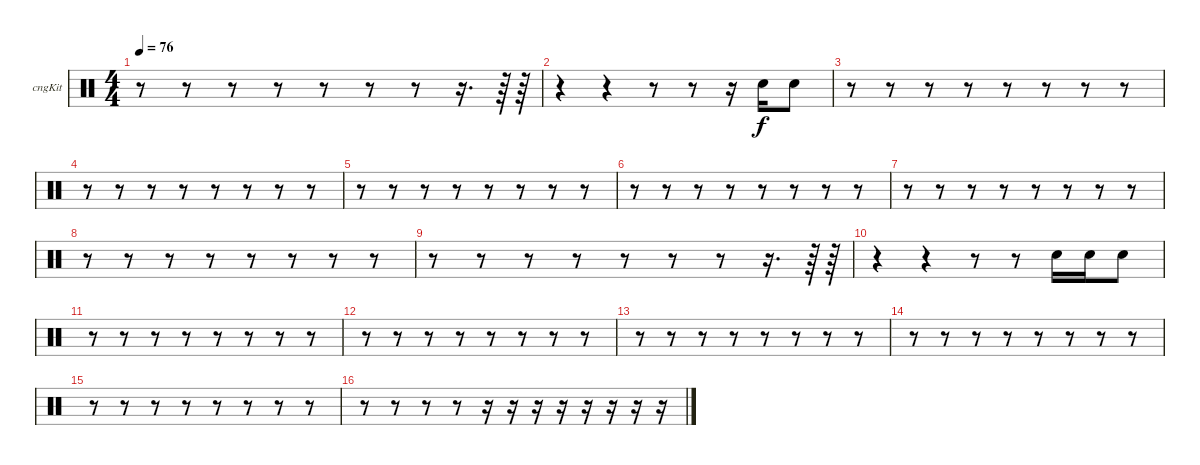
\bracketExtendMode groupsimilarinstruments
\firstSystemTrackNameOrientation horizontal
\otherSystemsTrackNameOrientation horizontal
\track ("Congas" "cngKit") {instrument percussion}
\staff {score}
\articulation defaults
\ts (4 4)
\tempo 76
\clef neutral
\ks c
r.8{dy f} r.8 r.8 r.8 r.8 r.8 r.8 r.16{d} r.64 r.64 |
r.4 r.4 r.8 r.8 r.16 "Snare (hit) 2".16 "Snare (hit) 2".8 |
r.8 r.8 r.8 r.8 r.8 r.8 r.8 r.8 |
r.8 r.8 r.8 r.8 r.8 r.8 r.8 r.8 |
r.8 r.8 r.8 r.8 r.8 r.8 r.8 r.8 |
r.8 r.8 r.8 r.8 r.8 r.8 r.8 r.8 |
r.8 r.8 r.8 r.8 r.8 r.8 r.8 r.8 |
r.8 r.8 r.8 r.8 r.8 r.8 r.8 r.8 |
r.8 r.8 r.8 r.8 r.8 r.8 r.8 r.16{d} r.64 r.64 |
r.4 r.4 r.8 r.8 "Snare (hit) 2".16 "Snare (hit) 2".16 "Snare (hit) 2".8 |
r.8 r.8 r.8 r.8 r.8 r.8 r.8 r.8 |
r.8 r.8 r.8 r.8 r.8 r.8 r.8 r.8 |
r.8 r.8 r.8 r.8 r.8 r.8 r.8 r.8 |
r.8 r.8 r.8 r.8 r.8 r.8 r.8 r.8 |
r.8 r.8 r.8 r.8 r.8 r.8 r.8 r.8 |
r.8 r.8 r.8 r.8 r.16 r.16 r.16 r.16 r.16 r.16 r.16 r.16
